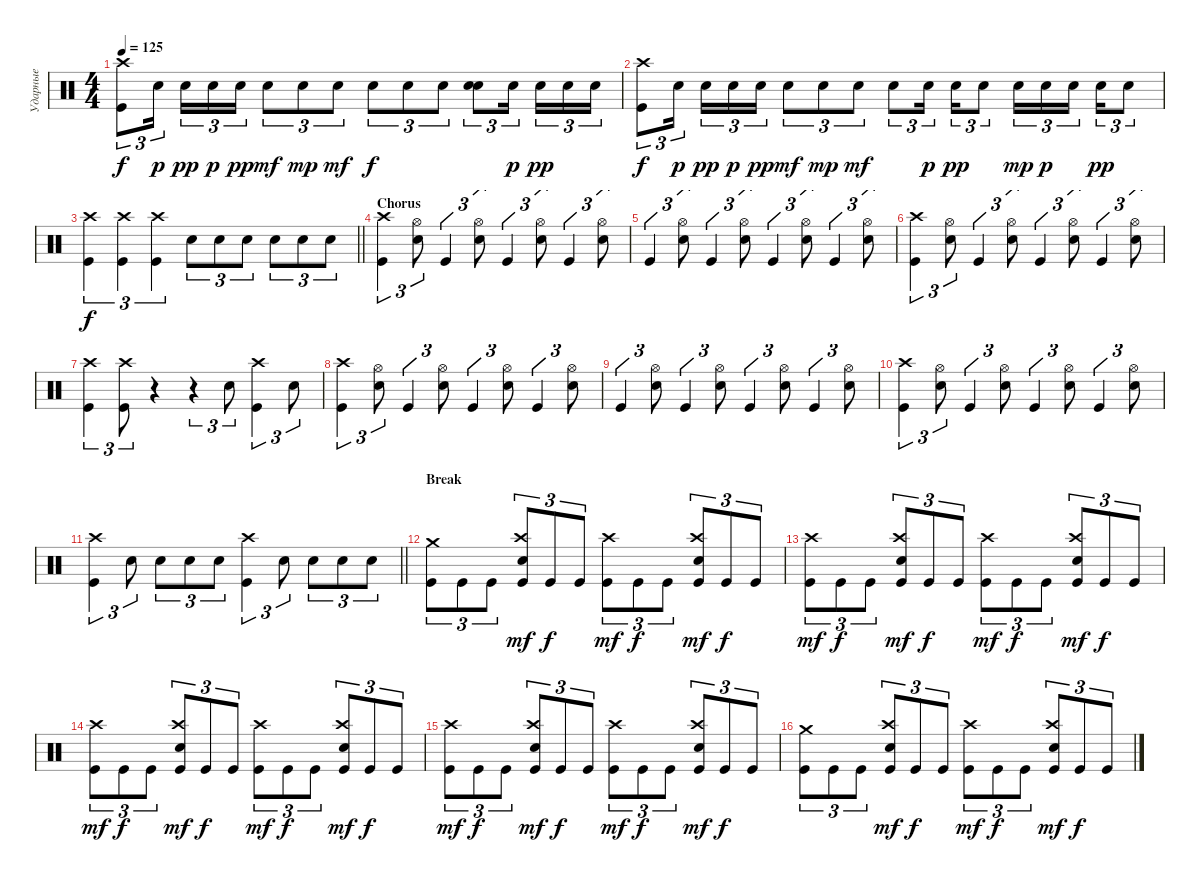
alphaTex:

\track ("Ударные" "Ударные") {instrument percussion}
\staff {score}
\articulation defaults
\ts (4 4)
\tempo 125
\clef neutral
\ks c
("Kick (hit)" "Crash high (hit)").8{tu (3 2) dy f} "Snare (hit) 2".16{tu (3 2) dy p beam splitsecondary} "Snare (hit) 2".16{tu (3 2) dy pp} "Snare (hit) 2".16{tu (3 2) dy p} "Snare (hit) 2".16{tu (3 2) dy pp} "Snare (hit) 2".8{tu (3 2) dy mf} "Snare (hit) 2".8{tu (3 2) dy mp} "Snare (hit) 2".8{tu (3 2) dy mf} "Snare (hit) 2".8{tu (3 2) dy f} "Snare (hit) 2".8{tu (3 2)} "Snare (hit) 2".8{tu (3 2)} ("Snare (hit) 2" "Snare (hit) 2").8{tu (3 2) bd 60} "Snare (hit) 2".16{tu (3 2) dy p beam splitsecondary} "Snare (hit) 2".16{tu (3 2) dy pp} "Snare (hit) 2".16{tu (3 2)} "Snare (hit) 2".16{tu (3 2)} |
("Kick (hit)" "Crash high (hit)").8{tu (3 2) dy f} "Snare (hit) 2".16{tu (3 2) dy p beam splitsecondary} "Snare (hit) 2".16{tu (3 2) dy pp} "Snare (hit) 2".16{tu (3 2) dy p} "Snare (hit) 2".16{tu (3 2) dy pp} "Snare (hit) 2".8{tu (3 2) dy mf} "Snare (hit) 2".8{tu (3 2) dy mp} "Snare (hit) 2".8{tu (3 2) dy mf} "Snare (hit) 2".8{tu (3 2)} "Snare (hit) 2".16{tu (3 2) dy p beam splitsecondary} "Snare (hit) 2".16{tu (3 2) dy pp} "Snare (hit) 2".8{tu (3 2)} "Snare (hit) 2".16{tu (3 2) dy mp} "Snare (hit) 2".16{tu (3 2) dy p} "Snare (hit) 2".16{tu (3 2) beam splitsecondary} "Snare (hit) 2".16{tu (3 2) dy pp} "Snare (hit) 2".8{tu (3 2)} |
\barLineRight lightlight
("Kick (hit)" "Crash high (hit)").4{tu (3 2) dy f} ("Crash high (hit)" "Kick (hit)").4{tu (3 2)} ("Crash high (hit)" "Kick (hit)").4{tu (3 2)} "Snare (hit) 2".8{tu (3 2)} "Snare (hit) 2".8{tu (3 2)} "Snare (hit) 2".8{tu (3 2)} "Snare (hit) 2".8{tu (3 2)} "Snare (hit) 2".8{tu (3 2)} "Snare (hit) 2".8{tu (3 2)} |
\section ("" "Chorus")
("Kick (hit)" "Crash high (hit)").4{tu (3 2)} ("Snare (hit) 2" "Hi-Hat (open)").8{tu (3 2)} "Kick (hit)".4{tu (3 2)} ("Snare (hit) 2" "Hi-Hat (open)").8{tu (3 2)} "Kick (hit)".4{tu (3 2)} ("Hi-Hat (open)" "Snare (hit) 2").8{tu (3 2)} "Kick (hit)".4{tu (3 2)} ("Snare (hit) 2" "Hi-Hat (open)").8{tu (3 2)} |
"Kick (hit)".4{tu (3 2)} ("Hi-Hat (open)" "Snare (hit) 2").8{tu (3 2)} "Kick (hit)".4{tu (3 2)} ("Snare (hit) 2" "Hi-Hat (open)").8{tu (3 2)} "Kick (hit)".4{tu (3 2)} ("Hi-Hat (open)" "Snare (hit) 2").8{tu (3 2)} "Kick (hit)".4{tu (3 2)} ("Snare (hit) 2" "Hi-Hat (open)").8{tu (3 2)} |
("Kick (hit)" "Crash high (hit)").4{tu (3 2)} ("Snare (hit) 2" "Hi-Hat (open)").8{tu (3 2)} "Kick (hit)".4{tu (3 2)} ("Snare (hit) 2" "Hi-Hat (open)").8{tu (3 2)} "Kick (hit)".4{tu (3 2)} ("Hi-Hat (open)" "Snare (hit) 2").8{tu (3 2)} "Kick (hit)".4{tu (3 2)} ("Snare (hit) 2" "Hi-Hat (open)").8{tu (3 2)} |
("Kick (hit)" "Crash high (hit)").4{tu (3 2)} ("Crash high (hit)" "Kick (hit)").8{tu (3 2)} r.4 r.4{tu (3 2)} "Snare (hit) 2".8{tu (3 2)} ("Kick (hit)" "Crash high (hit)").4{tu (3 2)} "Snare (hit) 2".8{tu (3 2)} |
("Kick (hit)" "Crash high (hit)").4{tu (3 2)} ("Snare (hit) 2" "Hi-Hat (open)").8{tu (3 2)} "Kick (hit)".4{tu (3 2)} ("Snare (hit) 2" "Hi-Hat (open)").8{tu (3 2)} "Kick (hit)".4{tu (3 2)} ("Hi-Hat (open)" "Snare (hit) 2").8{tu (3 2)} "Kick (hit)".4{tu (3 2)} ("Snare (hit) 2" "Hi-Hat (open)").8{tu (3 2)} |
"Kick (hit)".4{tu (3 2)} ("Hi-Hat (open)" "Snare (hit) 2").8{tu (3 2)} "Kick (hit)".4{tu (3 2)} ("Snare (hit) 2" "Hi-Hat (open)").8{tu (3 2)} "Kick (hit)".4{tu (3 2)} ("Hi-Hat (open)" "Snare (hit) 2").8{tu (3 2)} "Kick (hit)".4{tu (3 2)} ("Snare (hit) 2" "Hi-Hat (open)").8{tu (3 2)} |
("Kick (hit)" "Crash high (hit)").4{tu (3 2)} ("Snare (hit) 2" "Hi-Hat (open)").8{tu (3 2)} "Kick (hit)".4{tu (3 2)} ("Snare (hit) 2" "Hi-Hat (open)").8{tu (3 2)} "Kick (hit)".4{tu (3 2)} ("Hi-Hat (open)" "Snare (hit) 2").8{tu (3 2)} "Kick (hit)".4{tu (3 2)} ("Snare (hit) 2" "Hi-Hat (open)").8{tu (3 2)} |
\barLineRight lightlight
("Kick (hit)" "Crash high (hit)").4{tu (3 2)} "Snare (hit) 2".8{tu (3 2)} "Snare (hit) 2".8{tu (3 2)} "Snare (hit) 2".8{tu (3 2)} "Snare (hit) 2".8{tu (3 2)} ("Kick (hit)" "Crash high (hit)").4{tu (3 2)} "Snare (hit) 2".8{tu (3 2)} "Snare (hit) 2".8{tu (3 2)} "Snare (hit) 2".8{tu (3 2)} "Snare (hit) 2".8{tu (3 2)} |
\section ("" "Break")
("Kick (hit)" "Crash medium (hit)").8{tu (3 2)} "Kick (hit)".8{tu (3 2)} "Kick (hit)".8{tu (3 2)} ("Kick (hit)" "Snare (hit) 2" "Crash high (hit)").8{tu (3 2) dy mf} "Kick (hit)".8{tu (3 2) dy f} "Kick (hit)".8{tu (3 2)} ("Kick (hit)" "Crash high (hit)").8{tu (3 2) dy mf} "Kick (hit)".8{tu (3 2) dy f} "Kick (hit)".8{tu (3 2)} ("Kick (hit)" "Snare (hit) 2" "Crash high (hit)").8{tu (3 2) dy mf} "Kick (hit)".8{tu (3 2) dy f} "Kick (hit)".8{tu (3 2)} |
("Kick (hit)" "Crash high (hit)").8{tu (3 2) dy mf} "Kick (hit)".8{tu (3 2) dy f} "Kick (hit)".8{tu (3 2)} ("Kick (hit)" "Snare (hit) 2" "Crash high (hit)").8{tu (3 2) dy mf} "Kick (hit)".8{tu (3 2) dy f} "Kick (hit)".8{tu (3 2)} ("Kick (hit)" "Crash high (hit)").8{tu (3 2) dy mf} "Kick (hit)".8{tu (3 2) dy f} "Kick (hit)".8{tu (3 2)} ("Kick (hit)" "Snare (hit) 2" "Crash high (hit)").8{tu (3 2) dy mf} "Kick (hit)".8{tu (3 2) dy f} "Kick (hit)".8{tu (3 2)} |
("Kick (hit)" "Crash high (hit)").8{tu (3 2) dy mf} "Kick (hit)".8{tu (3 2) dy f} "Kick (hit)".8{tu (3 2)} ("Kick (hit)" "Snare (hit) 2" "Crash high (hit)").8{tu (3 2) dy mf} "Kick (hit)".8{tu (3 2) dy f} "Kick (hit)".8{tu (3 2)} ("Kick (hit)" "Crash high (hit)").8{tu (3 2) dy mf} "Kick (hit)".8{tu (3 2) dy f} "Kick (hit)".8{tu (3 2)} ("Kick (hit)" "Snare (hit) 2" "Crash high (hit)").8{tu (3 2) dy mf} "Kick (hit)".8{tu (3 2) dy f} "Kick (hit)".8{tu (3 2)} |
("Kick (hit)" "Crash high (hit)").8{tu (3 2) dy mf} "Kick (hit)".8{tu (3 2) dy f} "Kick (hit)".8{tu (3 2)} ("Kick (hit)" "Snare (hit) 2" "Crash high (hit)").8{tu (3 2) dy mf} "Kick (hit)".8{tu (3 2) dy f} "Kick (hit)".8{tu (3 2)} ("Kick (hit)" "Crash high (hit)").8{tu (3 2) dy mf} "Kick (hit)".8{tu (3 2) dy f} "Kick (hit)".8{tu (3 2)} ("Kick (hit)" "Snare (hit) 2" "Crash high (hit)").8{tu (3 2) dy mf} "Kick (hit)".8{tu (3 2) dy f} "Kick (hit)".8{tu (3 2)} |
("Kick (hit)" "Crash medium (hit)").8{tu (3 2)} "Kick (hit)".8{tu (3 2)} "Kick (hit)".8{tu (3 2)} ("Kick (hit)" "Snare (hit) 2" "Crash high (hit)").8{tu (3 2) dy mf} "Kick (hit)".8{tu (3 2) dy f} "Kick (hit)".8{tu (3 2)} ("Kick (hit)" "Crash high (hit)").8{tu (3 2) dy mf} "Kick (hit)".8{tu (3 2) dy f} "Kick (hit)".8{tu (3 2)} ("Kick (hit)" "Snare (hit) 2" "Crash high (hit)").8{tu (3 2) dy mf} "Kick (hit)".8{tu (3 2) dy f} "Kick (hit)".8{tu (3 2)}
